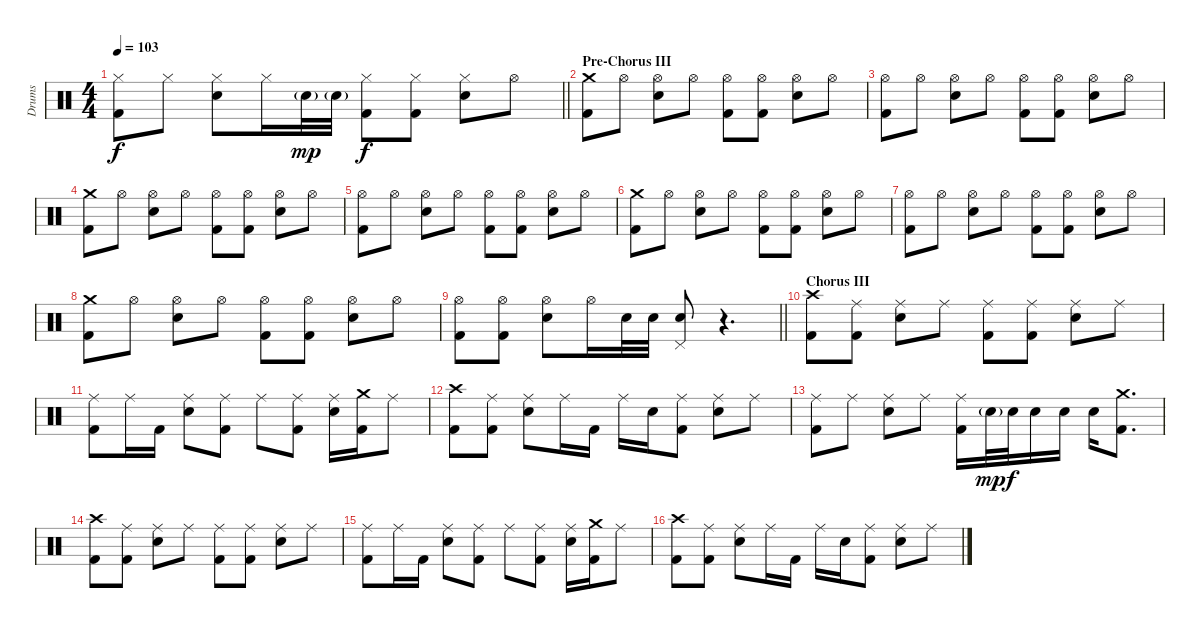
\track ("Drums" "Drums") {instrument percussion}
\staff {score}
\articulation defaults
\ts (4 4)
\tempo 103
\clef neutral
\barLineRight lightlight
\ks c
("Hi-Hat (closed)" "Kick (hit) 2").8{dy f} "Hi-Hat (closed)".8 ("Hi-Hat (closed)" "Electric Snare (hit)").8 "Hi-Hat (closed)".16 "Electric Snare (hit)"{g}.32{dy mp} "Electric Snare (hit)"{g}.32 ("Hi-Hat (closed)" "Kick (hit) 2").8{dy f} ("Hi-Hat (closed)" "Kick (hit) 2").8 ("Hi-Hat (closed)" "Electric Snare (hit)").8 "Hi-Hat (open)".8 |
\section ("" "Pre-Chorus III")
("Crash medium (hit)" "Kick (hit) 2").8 "Hi-Hat (open)".8 ("Hi-Hat (open)" "Electric Snare (hit)").8 "Hi-Hat (open)".8 ("Hi-Hat (open)" "Kick (hit) 2").8 ("Hi-Hat (open)" "Kick (hit) 2").8 ("Hi-Hat (open)" "Electric Snare (hit)").8 "Hi-Hat (open)".8 |
("Hi-Hat (open)" "Kick (hit) 2").8 "Hi-Hat (open)".8 ("Hi-Hat (open)" "Electric Snare (hit)").8 "Hi-Hat (open)".8 ("Hi-Hat (open)" "Kick (hit) 2").8 ("Hi-Hat (open)" "Kick (hit) 2").8 ("Hi-Hat (open)" "Electric Snare (hit)").8 "Hi-Hat (open)".8 |
("Crash medium (hit)" "Kick (hit) 2").8 "Hi-Hat (open)".8 ("Hi-Hat (open)" "Electric Snare (hit)").8 "Hi-Hat (open)".8 ("Hi-Hat (open)" "Kick (hit) 2").8 ("Hi-Hat (open)" "Kick (hit) 2").8 ("Hi-Hat (open)" "Electric Snare (hit)").8 "Hi-Hat (open)".8 |
("Hi-Hat (open)" "Kick (hit) 2").8 "Hi-Hat (open)".8 ("Hi-Hat (open)" "Electric Snare (hit)").8 "Hi-Hat (open)".8 ("Hi-Hat (open)" "Kick (hit) 2").8 ("Hi-Hat (open)" "Kick (hit) 2").8 ("Hi-Hat (open)" "Electric Snare (hit)").8 "Hi-Hat (open)".8 |
("Crash medium (hit)" "Kick (hit) 2").8 "Hi-Hat (open)".8 ("Hi-Hat (open)" "Electric Snare (hit)").8 "Hi-Hat (open)".8 ("Hi-Hat (open)" "Kick (hit) 2").8 ("Hi-Hat (open)" "Kick (hit) 2").8 ("Hi-Hat (open)" "Electric Snare (hit)").8 "Hi-Hat (open)".8 |
("Hi-Hat (open)" "Kick (hit) 2").8 "Hi-Hat (open)".8 ("Hi-Hat (open)" "Electric Snare (hit)").8 "Hi-Hat (open)".8 ("Hi-Hat (open)" "Kick (hit) 2").8 ("Hi-Hat (open)" "Kick (hit) 2").8 ("Hi-Hat (open)" "Electric Snare (hit)").8 "Hi-Hat (open)".8 |
("Crash medium (hit)" "Kick (hit) 2").8 "Hi-Hat (open)".8 ("Hi-Hat (open)" "Electric Snare (hit)").8 "Hi-Hat (open)".8 ("Hi-Hat (open)" "Kick (hit) 2").8 ("Hi-Hat (open)" "Kick (hit) 2").8 ("Hi-Hat (open)" "Electric Snare (hit)").8 "Hi-Hat (open)".8 |
\barLineRight lightlight
("Hi-Hat (open)" "Kick (hit) 2").8 ("Hi-Hat (open)" "Kick (hit) 2").8 ("Hi-Hat (open)" "Electric Snare (hit)").8 "Hi-Hat (open)".16 "Electric Snare (hit)".32 "Electric Snare (hit)".32 ("Pedal Hi-Hat (hit)" "Electric Snare (hit)").8 r.4{d} |
\section ("" "Chorus III")
("Crash high (hit)" "Kick (hit) 2").8 ("Ride (middle)" "Kick (hit) 2").8 ("Ride (middle)" "Electric Snare (hit)").8 "Ride (middle)".8 ("Ride (middle)" "Kick (hit) 2").8 ("Ride (middle)" "Kick (hit) 2").8 ("Ride (middle)" "Electric Snare (hit)").8 "Ride (middle)".8 |
("Ride (middle)" "Kick (hit) 2").8 "Ride (middle)".16 "Kick (hit) 2".16 ("Ride (middle)" "Electric Snare (hit)").8 ("Ride (middle)" "Kick (hit) 2").8 "Ride (middle)".8 ("Ride (middle)" "Kick (hit) 2").8 ("Ride (middle)" "Electric Snare (hit)").16 ("Crash medium (hit)" "Kick (hit) 2").16 "Ride (middle)".8 |
("Crash high (hit)" "Kick (hit) 2").8 ("Ride (middle)" "Kick (hit) 2").8 ("Ride (middle)" "Electric Snare (hit)").8 "Ride (middle)".16 "Kick (hit) 2".16 "Ride (middle)".16 "Electric Snare (hit)".16 ("Ride (middle)" "Kick (hit) 2").8 ("Ride (middle)" "Electric Snare (hit)").8 "Ride (middle)".8 |
("Ride (middle)" "Kick (hit) 2").8 "Ride (middle)".8 ("Ride (middle)" "Electric Snare (hit)").8 "Ride (middle)".8 ("Ride (middle)" "Kick (hit) 2").16 "Electric Snare (hit)"{g}.32{dy mp} "Electric Snare (hit)".32{dy f} "Electric Snare (hit)".16 "Electric Snare (hit)".16 "Electric Snare (hit)".16 ("Crash medium (hit)" "Kick (hit) 2").8{d} |
("Crash high (hit)" "Kick (hit) 2").8 ("Ride (middle)" "Kick (hit) 2").8 ("Ride (middle)" "Electric Snare (hit)").8 "Ride (middle)".8 ("Ride (middle)" "Kick (hit) 2").8 ("Ride (middle)" "Kick (hit) 2").8 ("Ride (middle)" "Electric Snare (hit)").8 "Ride (middle)".8 |
("Ride (middle)" "Kick (hit) 2").8 "Ride (middle)".16 "Kick (hit) 2".16 ("Ride (middle)" "Electric Snare (hit)").8 ("Ride (middle)" "Kick (hit) 2").8 "Ride (middle)".8 ("Ride (middle)" "Kick (hit) 2").8 ("Ride (middle)" "Electric Snare (hit)").16 ("Crash medium (hit)" "Kick (hit) 2").16 "Ride (middle)".8 |
("Crash high (hit)" "Kick (hit) 2").8 ("Ride (middle)" "Kick (hit) 2").8 ("Ride (middle)" "Electric Snare (hit)").8 "Ride (middle)".16 "Kick (hit) 2".16 "Ride (middle)".16 "Electric Snare (hit)".16 ("Ride (middle)" "Kick (hit) 2").8 ("Ride (middle)" "Electric Snare (hit)").8 "Ride (middle)".8
